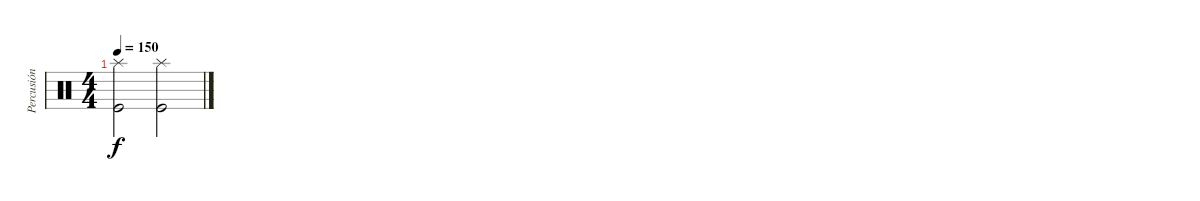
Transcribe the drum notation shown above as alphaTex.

\track ("Percusión" "Percusión") {instrument percussion}
\staff {score}
\articulation defaults
\ts (4 4)
\tempo 150
\clef neutral
\ks c
("Splash (hit)" "Kick (hit)").2{dy f} ("Splash (hit)" "Kick (hit)").2
